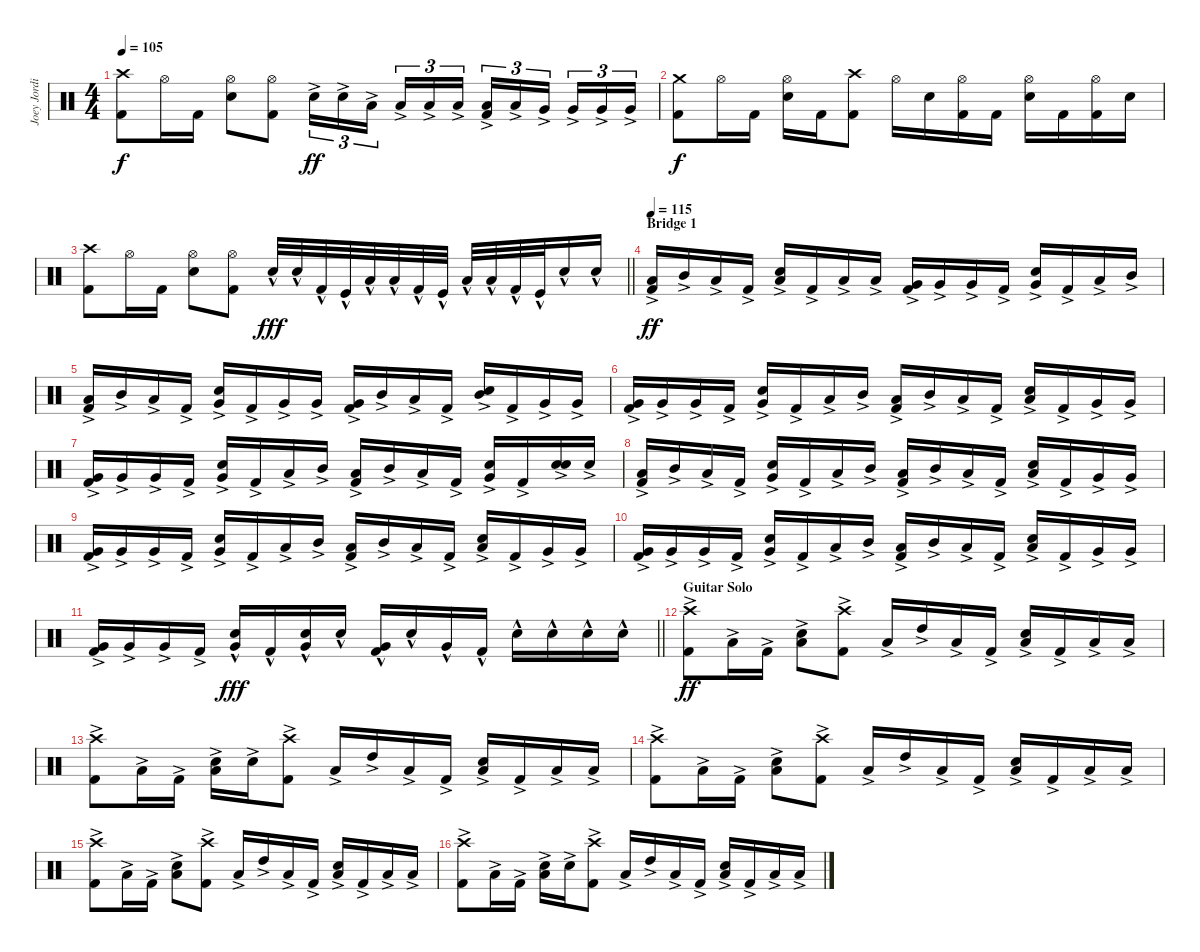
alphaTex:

\track ("Joey Jordinson (Drums)" "Joey Jordi") {instrument percussion}
\staff {score}
\articulation defaults
\ts (4 4)
\tempo 105
\clef neutral
\ks c
("Crash high (hit)" "Kick (hit) 2").8{dy f} "Hi-Hat (open)".16 "Kick (hit) 2".16 ("Hi-Hat (open)" "Electric Snare (hit)").8 ("Hi-Hat (open)" "Kick (hit) 2").8 "Electric Snare (hit)"{ac}.16{tu (3 2) dy ff} "Electric Snare (hit)"{ac}.16{tu (3 2)} "Low Tom (hit)"{ac}.16{tu (3 2) beam splitsecondary} "Low Tom (hit)"{ac}.16{tu (3 2)} "Low Tom (hit)"{ac}.16{tu (3 2)} "Low Tom (hit)"{ac}.16{tu (3 2)} ("Low Tom (hit)"{ac} "Kick (hit) 2").16{tu (3 2)} "Low Tom (hit)"{ac}.16{tu (3 2)} "Very Low Tom (hit)"{ac}.16{tu (3 2) beam splitsecondary} "Very Low Tom (hit)"{ac}.16{tu (3 2)} "Very Low Tom (hit)"{ac}.16{tu (3 2)} "Very Low Tom (hit)"{ac}.16{tu (3 2)} |
("Crash medium (hit)" "Kick (hit) 2").8{dy f} "Hi-Hat (open)".16 "Kick (hit) 2".16 ("Hi-Hat (open)" "Electric Snare (hit)").16 "Kick (hit) 2".16 ("Crash high (hit)" "Kick (hit) 2").8 "Hi-Hat (open)".16 "Electric Snare (hit)".16 ("Hi-Hat (open)" "Kick (hit) 2").16 "Kick (hit) 2".16 ("Hi-Hat (open)" "Electric Snare (hit)").16 "Kick (hit) 2".16 ("Hi-Hat (open)" "Kick (hit) 2").16 "Electric Snare (hit)".16 |
\barLineRight lightlight
("Crash high (hit)" "Kick (hit) 2").8 "Hi-Hat (open)".16 "Kick (hit) 2".16 ("Hi-Hat (open)" "Electric Snare (hit)").8 ("Hi-Hat (open)" "Kick (hit) 2").8 "Electric Snare (hit)"{hac}.32{dy fff} "Electric Snare (hit)"{hac}.32 "Kick (hit) 2"{hac}.32 "Kick (hit)"{hac}.32 "Low Tom (hit)"{hac}.32 "Low Tom (hit)"{hac}.32 "Kick (hit) 2"{hac}.32 "Kick (hit)"{hac}.32 "Low Tom (hit)"{hac}.32 "Low Tom (hit)"{hac}.32 "Kick (hit) 2"{hac}.32 "Kick (hit)"{hac}.32 "Electric Snare (hit)"{hac}.16 "Electric Snare (hit)"{hac}.16 |
\section ("" "Bridge 1")
\tempo 115
("Low Tom (hit)"{ac} "Kick (hit) 2"{ac}).16{dy ff} "Mid Tom (hit)"{ac}.16 "Low Tom (hit)"{ac}.16 "Kick (hit) 2"{ac}.16 ("Low Tom (hit)"{ac} "Electric Snare (hit)"{ac}).16 "Kick (hit) 2"{ac}.16 "Low Tom (hit)"{ac}.16 "Low Tom (hit)"{ac}.16 ("Very Low Tom (hit)"{ac} "Kick (hit) 2"{ac}).16 "Very Low Tom (hit)"{ac}.16 "Very Low Tom (hit)"{ac}.16 "Kick (hit) 2"{ac}.16 ("Electric Snare (hit)"{ac} "Very Low Tom (hit)"{ac}).16 "Kick (hit) 2"{ac}.16 "Low Tom (hit)"{ac}.16 "Mid Tom (hit)"{ac}.16 |
("Low Tom (hit)"{ac} "Kick (hit) 2"{ac}).16 "Mid Tom (hit)"{ac}.16 "Low Tom (hit)"{ac}.16 "Kick (hit) 2"{ac}.16 ("Electric Snare (hit)"{ac} "Very Low Tom (hit)"{ac}).16 "Kick (hit) 2"{ac}.16 "Very Low Tom (hit)"{ac}.16 "Very Low Tom (hit)"{ac}.16 ("Very Low Tom (hit)"{ac} "Kick (hit) 2"{ac}).16 "Mid Tom (hit)"{ac}.16 "Low Tom (hit)"{ac}.16 "Kick (hit) 2"{ac}.16 ("Mid Tom (hit)"{ac} "Electric Snare (hit)"{ac}).16 "Kick (hit) 2"{ac}.16 "Very Low Tom (hit)"{ac}.16 "Very Low Tom (hit)"{ac}.16 |
("Very Low Tom (hit)"{ac} "Kick (hit) 2"{ac}).16 "Very Low Tom (hit)"{ac}.16 "Very Low Tom (hit)"{ac}.16 "Kick (hit) 2"{ac}.16 ("Electric Snare (hit)"{ac} "Very Low Tom (hit)"{ac}).16 "Kick (hit) 2"{ac}.16 "Low Tom (hit)"{ac}.16 "Mid Tom (hit)"{ac}.16 ("Low Tom (hit)"{ac} "Kick (hit) 2"{ac}).16 "Mid Tom (hit)"{ac}.16 "Low Tom (hit)"{ac}.16 "Kick (hit) 2"{ac}.16 ("Low Tom (hit)"{ac} "Electric Snare (hit)"{ac}).16 "Kick (hit) 2"{ac}.16 "Very Low Tom (hit)"{ac}.16 "Very Low Tom (hit)"{ac}.16 |
("Very Low Tom (hit)"{ac} "Kick (hit) 2"{ac}).16 "Very Low Tom (hit)"{ac}.16 "Very Low Tom (hit)"{ac}.16 "Kick (hit) 2"{ac}.16 ("Electric Snare (hit)"{ac} "Very Low Tom (hit)"{ac}).16 "Kick (hit) 2"{ac}.16 "Low Tom (hit)"{ac}.16 "Mid Tom (hit)"{ac}.16 ("Low Tom (hit)"{ac} "Kick (hit) 2"{ac}).16 "Mid Tom (hit)"{ac}.16 "Low Tom (hit)"{ac}.16 "Kick (hit) 2"{ac}.16 ("Electric Snare (hit)"{ac} "Very Low Tom (hit)"{ac}).16 "Kick (hit) 2"{ac}.16 ("Electric Snare (hit)"{ac} "Electric Snare (hit)"{ac}).16{bd 120} "Electric Snare (hit)"{ac}.16 |
("Low Tom (hit)"{ac} "Kick (hit) 2"{ac}).16 "Mid Tom (hit)"{ac}.16 "Low Tom (hit)"{ac}.16 "Kick (hit) 2"{ac}.16 ("Electric Snare (hit)"{ac} "Very Low Tom (hit)"{ac}).16 "Kick (hit) 2"{ac}.16 "Low Tom (hit)"{ac}.16 "Mid Tom (hit)"{ac}.16 ("Low Tom (hit)"{ac} "Kick (hit) 2"{ac}).16 "Mid Tom (hit)"{ac}.16 "Low Tom (hit)"{ac}.16 "Kick (hit) 2"{ac}.16 ("Low Tom (hit)"{ac} "Electric Snare (hit)"{ac}).16 "Kick (hit) 2"{ac}.16 "Very Low Tom (hit)"{ac}.16 "Very Low Tom (hit)"{ac}.16 |
("Very Low Tom (hit)"{ac} "Kick (hit) 2"{ac}).16 "Very Low Tom (hit)"{ac}.16 "Very Low Tom (hit)"{ac}.16 "Kick (hit) 2"{ac}.16 ("Electric Snare (hit)"{ac} "Very Low Tom (hit)"{ac}).16 "Kick (hit) 2"{ac}.16 "Low Tom (hit)"{ac}.16 "Mid Tom (hit)"{ac}.16 ("Low Tom (hit)"{ac} "Kick (hit) 2"{ac}).16 "Mid Tom (hit)"{ac}.16 "Low Tom (hit)"{ac}.16 "Kick (hit) 2"{ac}.16 ("Low Tom (hit)"{ac} "Electric Snare (hit)"{ac}).16 "Kick (hit) 2"{ac}.16 "Very Low Tom (hit)"{ac}.16 "Very Low Tom (hit)"{ac}.16 |
("Very Low Tom (hit)"{ac} "Kick (hit) 2"{ac}).16 "Very Low Tom (hit)"{ac}.16 "Very Low Tom (hit)"{ac}.16 "Kick (hit) 2"{ac}.16 ("Electric Snare (hit)"{ac} "Very Low Tom (hit)"{ac}).16 "Kick (hit) 2"{ac}.16 "Low Tom (hit)"{ac}.16 "Mid Tom (hit)"{ac}.16 ("Low Tom (hit)"{ac} "Kick (hit) 2"{ac}).16 "Mid Tom (hit)"{ac}.16 "Low Tom (hit)"{ac}.16 "Kick (hit) 2"{ac}.16 ("Low Tom (hit)"{ac} "Electric Snare (hit)"{ac}).16 "Kick (hit) 2"{ac}.16 "Very Low Tom (hit)"{ac}.16 "Very Low Tom (hit)"{ac}.16 |
\barLineRight lightlight
("Very Low Tom (hit)"{ac} "Kick (hit) 2"{ac}).16 "Very Low Tom (hit)"{ac}.16 "Very Low Tom (hit)"{ac}.16 "Kick (hit) 2"{ac}.16 ("Electric Snare (hit)"{hac} "Very Low Tom (hit)"{hac}).16{dy fff} "Kick (hit) 2"{hac}.16 ("Electric Snare (hit)"{hac} "Very Low Tom (hit)"{hac}).16 "Electric Snare (hit)"{hac}.16 ("Very Low Tom (hit)"{hac} "Kick (hit) 2"{hac}).16 "Electric Snare (hit)"{hac}.16 "Very Low Tom (hit)"{hac}.16 "Kick (hit) 2"{hac}.16 "Electric Snare (hit)"{hac}.16 "Electric Snare (hit)"{hac}.16 "Electric Snare (hit)"{hac}.16 "Electric Snare (hit)"{hac}.16 |
\section ("" "Guitar Solo")
("Crash high (hit)" "Kick (hit) 2"{ac}).8{dy ff} "Low Tom (hit)"{ac}.16 "Kick (hit) 2"{ac}.16 ("Low Tom (hit)"{ac} "Electric Snare (hit)"{ac}).8 ("Crash high (hit)" "Kick (hit) 2"{ac}).8 "Low Tom (hit)"{ac}.16 "High Tom (hit)"{ac}.16 "Low Tom (hit)"{ac}.16 "Kick (hit) 2"{ac}.16 ("Low Tom (hit)"{ac} "Electric Snare (hit)"{ac}).16 "Kick (hit) 2"{ac}.16 "Low Tom (hit)"{ac}.16 "Low Tom (hit)"{ac}.16 |
("Crash high (hit)" "Kick (hit) 2"{ac}).8 "Low Tom (hit)"{ac}.16 "Kick (hit) 2"{ac}.16 ("Low Tom (hit)"{ac} "Electric Snare (hit)"{ac}).16 "Electric Snare (hit)"{ac}.16 ("Crash high (hit)" "Kick (hit) 2"{ac}).8 "Low Tom (hit)"{ac}.16 "High Tom (hit)"{ac}.16 "Low Tom (hit)"{ac}.16 "Kick (hit) 2"{ac}.16 ("Low Tom (hit)"{ac} "Electric Snare (hit)"{ac}).16 "Kick (hit) 2"{ac}.16 "Low Tom (hit)"{ac}.16 "Low Tom (hit)"{ac}.16 |
("Crash high (hit)" "Kick (hit) 2"{ac}).8 "Low Tom (hit)"{ac}.16 "Kick (hit) 2"{ac}.16 ("Low Tom (hit)"{ac} "Electric Snare (hit)"{ac}).8 ("Crash high (hit)" "Kick (hit) 2"{ac}).8 "Low Tom (hit)"{ac}.16 "High Tom (hit)"{ac}.16 "Low Tom (hit)"{ac}.16 "Kick (hit) 2"{ac}.16 ("Low Tom (hit)"{ac} "Electric Snare (hit)"{ac}).16 "Kick (hit) 2"{ac}.16 "Low Tom (hit)"{ac}.16 "Low Tom (hit)"{ac}.16 |
("Crash high (hit)" "Kick (hit) 2"{ac}).8 "Low Tom (hit)"{ac}.16 "Kick (hit) 2"{ac}.16 ("Low Tom (hit)"{ac} "Electric Snare (hit)"{ac}).8 ("Crash high (hit)" "Kick (hit) 2"{ac}).8 "Low Tom (hit)"{ac}.16 "High Tom (hit)"{ac}.16 "Low Tom (hit)"{ac}.16 "Kick (hit) 2"{ac}.16 ("Low Tom (hit)"{ac} "Electric Snare (hit)"{ac}).16 "Kick (hit) 2"{ac}.16 "Low Tom (hit)"{ac}.16 "Low Tom (hit)"{ac}.16 |
("Crash high (hit)" "Kick (hit) 2"{ac}).8 "Low Tom (hit)"{ac}.16 "Kick (hit) 2"{ac}.16 ("Low Tom (hit)"{ac} "Electric Snare (hit)"{ac}).16 "Electric Snare (hit)"{ac}.16 ("Crash high (hit)" "Kick (hit) 2"{ac}).8 "Low Tom (hit)"{ac}.16 "High Tom (hit)"{ac}.16 "Low Tom (hit)"{ac}.16 "Kick (hit) 2"{ac}.16 ("Low Tom (hit)"{ac} "Electric Snare (hit)"{ac}).16 "Kick (hit) 2"{ac}.16 "Low Tom (hit)"{ac}.16 "Low Tom (hit)"{ac}.16
